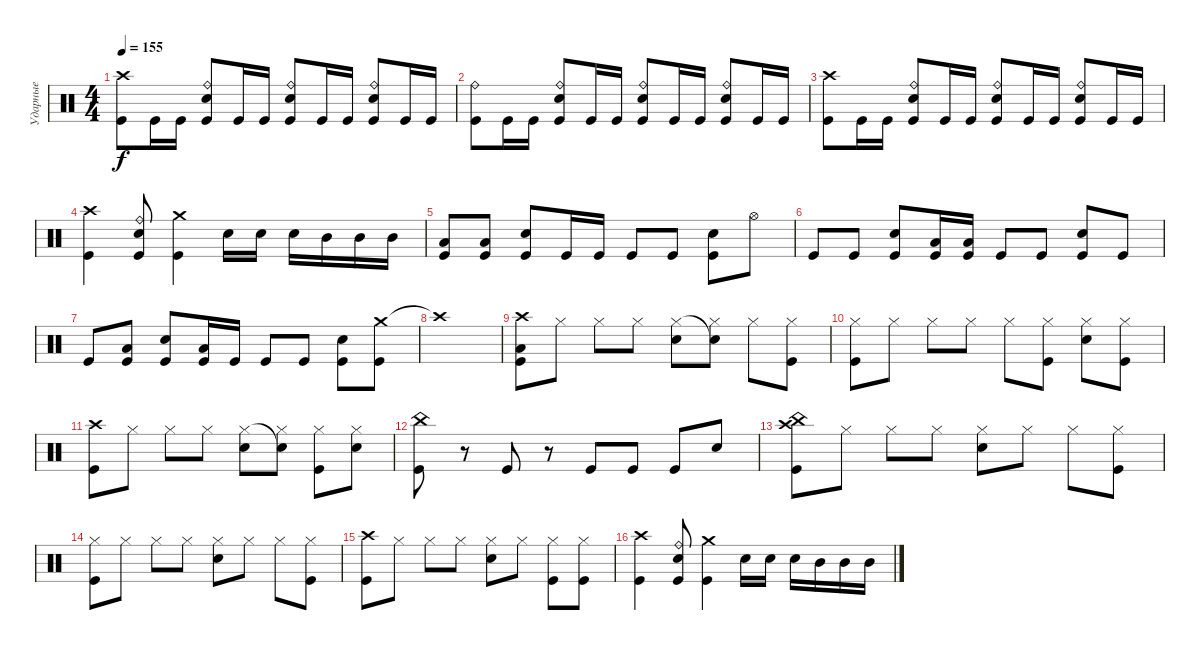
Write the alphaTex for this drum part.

\track ("Ударные" "Ударные") {instrument percussion}
\staff {score}
\articulation defaults
\ts (4 4)
\tempo 155
\clef neutral
\ks c
("Crash high (hit)" "Kick (hit)").8{dy f} "Kick (hit)".16 "Kick (hit)".16 ("Ride (bell)" "Electric Snare (hit)" "Kick (hit)").8 "Kick (hit)".16 "Kick (hit)".16 ("Ride (bell)" "Electric Snare (hit)" "Kick (hit)").8 "Kick (hit)".16 "Kick (hit)".16 ("Ride (bell)" "Electric Snare (hit)" "Kick (hit)").8 "Kick (hit)".16 "Kick (hit)".16 |
("Ride (bell)" "Kick (hit)").8 "Kick (hit)".16 "Kick (hit)".16 ("Ride (bell)" "Electric Snare (hit)" "Kick (hit)").8 "Kick (hit)".16 "Kick (hit)".16 ("Ride (bell)" "Electric Snare (hit)" "Kick (hit)").8 "Kick (hit)".16 "Kick (hit)".16 ("Ride (bell)" "Electric Snare (hit)" "Kick (hit)").8 "Kick (hit)".16 "Kick (hit)".16 |
("Crash high (hit)" "Kick (hit)").8 "Kick (hit)".16 "Kick (hit)".16 ("Ride (bell)" "Electric Snare (hit)" "Kick (hit)").8 "Kick (hit)".16 "Kick (hit)".16 ("Ride (bell)" "Electric Snare (hit)" "Kick (hit)").8 "Kick (hit)".16 "Kick (hit)".16 ("Ride (bell)" "Electric Snare (hit)" "Kick (hit)").8 "Kick (hit)".16 "Kick (hit)".16 |
("Crash high (hit)" "Kick (hit)").4 ("Ride (bell)" "Electric Snare (hit)" "Kick (hit)").8 ("Crash medium (hit)" "Kick (hit)").4 "Electric Snare (hit)".16 "Electric Snare (hit)".16 "Electric Snare (hit)".16 "Mid Tom (hit)".16 "Mid Tom (hit)".16 "Mid Tom (hit)".16 |
("Low Tom (hit)" "Kick (hit)").8 ("Low Tom (hit)" "Kick (hit)").8 ("Electric Snare (hit)" "Kick (hit)").8 "Kick (hit)".16 "Kick (hit)".16 "Kick (hit)".8 "Kick (hit)".8 ("Electric Snare (hit)" "Kick (hit)").8 "Hi-Hat (open)".8 |
"Kick (hit)".8 "Kick (hit)".8 ("Electric Snare (hit)" "Kick (hit)").8 ("Low Tom (hit)" "Kick (hit)").16 ("Low Tom (hit)" "Kick (hit)").16 "Kick (hit)".8 "Kick (hit)".8 ("Electric Snare (hit)" "Kick (hit)").8 "Kick (hit)".8 |
"Kick (hit)".8 ("Low Tom (hit)" "Kick (hit)").8 ("Electric Snare (hit)" "Kick (hit)").8 ("Low Tom (hit)" "Kick (hit)").16 "Kick (hit)".16 "Kick (hit)".8 "Kick (hit)".8 ("Electric Snare (hit)" "Kick (hit)").8 ("Crash medium (hit)" "Kick (hit)").8 |
"Crash high (hit)"{t}.1 |
("Crash high (hit)" "Low Tom (hit)" "Kick (hit)").8 "Hi-Hat (closed)".8 "Hi-Hat (closed)".8 "Hi-Hat (closed)".8 ("Hi-Hat (closed)" "Electric Snare (hit)").8 ("Snare (hit)"{t} "Hi-Hat (closed)").8 "Hi-Hat (closed)".8 ("Hi-Hat (closed)" "Kick (hit)").8 |
("Hi-Hat (closed)" "Kick (hit)").8 "Hi-Hat (closed)".8 "Hi-Hat (closed)".8 "Hi-Hat (closed)".8 "Hi-Hat (closed)".8 ("Hi-Hat (closed)" "Kick (hit)").8 ("Hi-Hat (closed)" "Electric Snare (hit)").8 ("Hi-Hat (closed)" "Kick (hit)").8 |
("Crash high (hit)" "Kick (hit)").8 "Hi-Hat (closed)".8 "Hi-Hat (closed)".8 "Hi-Hat (closed)".8 ("Hi-Hat (closed)" "Electric Snare (hit)").8 ("Snare (hit)"{t} "Hi-Hat (closed)").8 ("Hi-Hat (closed)" "Kick (hit)").8 ("Hi-Hat (closed)" "Electric Snare (hit)").8 |
("China (hit)" "Kick (hit)").8 r.8 "Kick (hit)".8 r.8 "Kick (hit)".8 "Kick (hit)".8 "Kick (hit)".8 "Electric Snare (hit)".8 |
("Crash high (hit)" "China (hit)" "Kick (hit)").8 "Hi-Hat (closed)".8 "Hi-Hat (closed)".8 "Hi-Hat (closed)".8 ("Hi-Hat (closed)" "Electric Snare (hit)").8 "Hi-Hat (closed)".8 "Hi-Hat (closed)".8 ("Hi-Hat (closed)" "Kick (hit)").8 |
("Hi-Hat (closed)" "Kick (hit)").8 "Hi-Hat (closed)".8 "Hi-Hat (closed)".8 "Hi-Hat (closed)".8 ("Hi-Hat (closed)" "Electric Snare (hit)").8 "Hi-Hat (closed)".8 "Hi-Hat (closed)".8 ("Hi-Hat (closed)" "Kick (hit)").8 |
("Crash high (hit)" "Kick (hit)").8 "Hi-Hat (closed)".8 "Hi-Hat (closed)".8 "Hi-Hat (closed)".8 ("Hi-Hat (closed)" "Electric Snare (hit)").8 "Hi-Hat (closed)".8 ("Hi-Hat (closed)" "Kick (hit)").8 ("Hi-Hat (closed)" "Kick (hit)").8 |
("Crash high (hit)" "Kick (hit)").4 ("Ride (bell)" "Electric Snare (hit)" "Kick (hit)").8 ("Crash medium (hit)" "Kick (hit)").4 "Electric Snare (hit)".16 "Electric Snare (hit)".16 "Electric Snare (hit)".16 "Mid Tom (hit)".16 "Mid Tom (hit)".16 "Mid Tom (hit)".16
